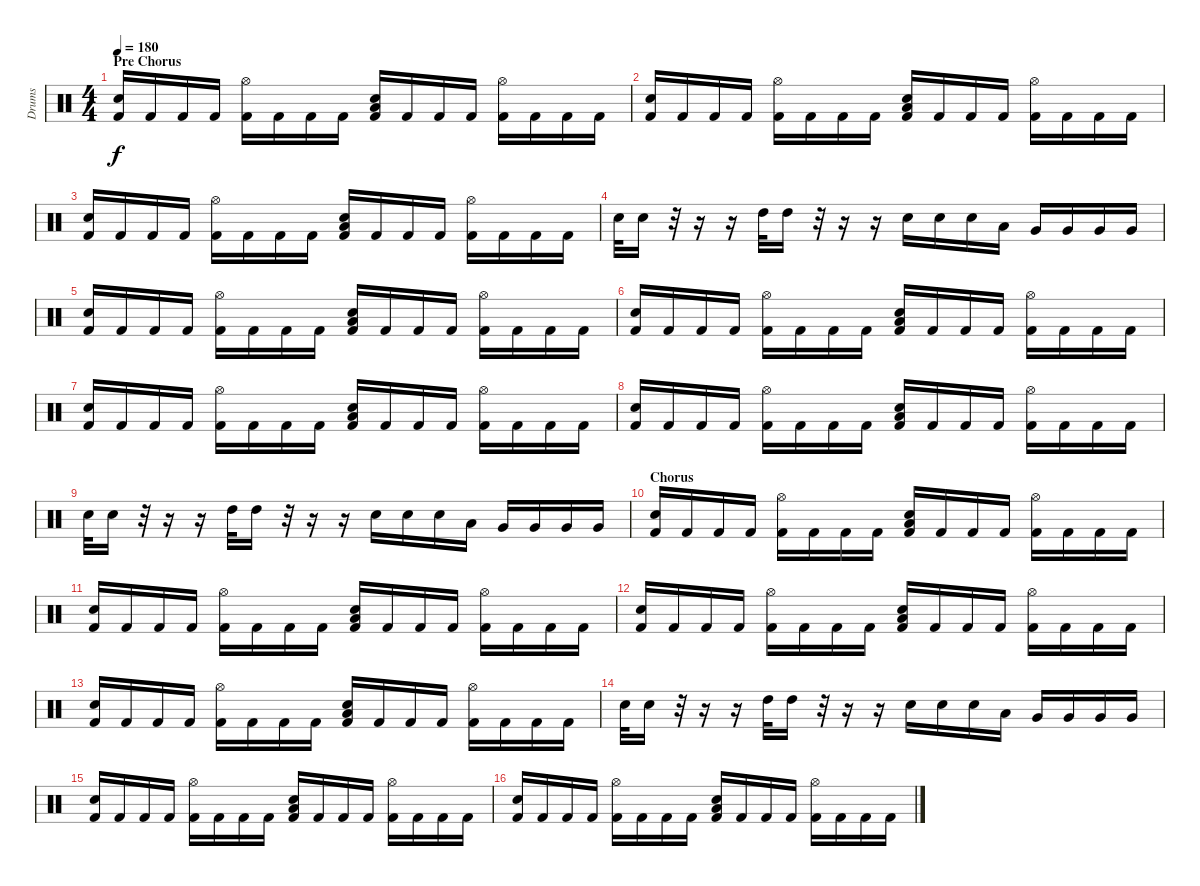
\track ("Drums" "Drums") {instrument percussion}
\staff {score}
\articulation defaults
\ts (4 4)
\section ("" "Pre Chorus")
\tempo 180
\clef neutral
\ks c
("Kick (hit) 2" "Electric Snare (hit)").16{dy f} "Kick (hit) 2".16 "Kick (hit) 2".16 "Kick (hit) 2".16 ("Kick (hit) 2" "Hi-Hat (open)").16 "Kick (hit) 2".16 "Kick (hit) 2".16 "Kick (hit) 2".16 ("Kick (hit) 2" "Low Tom (hit)" "Electric Snare (hit)").16 "Kick (hit) 2".16 "Kick (hit) 2".16 "Kick (hit) 2".16 ("Kick (hit) 2" "Hi-Hat (open)").16 "Kick (hit) 2".16 "Kick (hit) 2".16 "Kick (hit) 2".16 |
("Kick (hit) 2" "Electric Snare (hit)").16 "Kick (hit) 2".16 "Kick (hit) 2".16 "Kick (hit) 2".16 ("Kick (hit) 2" "Hi-Hat (open)").16 "Kick (hit) 2".16 "Kick (hit) 2".16 "Kick (hit) 2".16 ("Kick (hit) 2" "Low Tom (hit)" "Electric Snare (hit)").16 "Kick (hit) 2".16 "Kick (hit) 2".16 "Kick (hit) 2".16 ("Kick (hit) 2" "Hi-Hat (open)").16 "Kick (hit) 2".16 "Kick (hit) 2".16 "Kick (hit) 2".16 |
("Kick (hit) 2" "Electric Snare (hit)").16 "Kick (hit) 2".16 "Kick (hit) 2".16 "Kick (hit) 2".16 ("Kick (hit) 2" "Hi-Hat (open)").16 "Kick (hit) 2".16 "Kick (hit) 2".16 "Kick (hit) 2".16 ("Kick (hit) 2" "Low Tom (hit)" "Electric Snare (hit)").16 "Kick (hit) 2".16 "Kick (hit) 2".16 "Kick (hit) 2".16 ("Kick (hit) 2" "Hi-Hat (open)").16 "Kick (hit) 2".16 "Kick (hit) 2".16 "Kick (hit) 2".16 |
"Electric Snare (hit)".32 "Electric Snare (hit)".16 r.32 r.16 r.16 "High Tom (hit)".32 "High Tom (hit)".16 r.32 r.16 r.16 "Electric Snare (hit)".16 "Electric Snare (hit)".16 "Electric Snare (hit)".16 "Low Tom (hit)".16 "Very Low Tom (hit)".16 "Very Low Tom (hit)".16 "Very Low Tom (hit)".16 "Very Low Tom (hit)".16 |
("Kick (hit) 2" "Electric Snare (hit)").16 "Kick (hit) 2".16 "Kick (hit) 2".16 "Kick (hit) 2".16 ("Kick (hit) 2" "Hi-Hat (open)").16 "Kick (hit) 2".16 "Kick (hit) 2".16 "Kick (hit) 2".16 ("Kick (hit) 2" "Low Tom (hit)" "Electric Snare (hit)").16 "Kick (hit) 2".16 "Kick (hit) 2".16 "Kick (hit) 2".16 ("Kick (hit) 2" "Hi-Hat (open)").16 "Kick (hit) 2".16 "Kick (hit) 2".16 "Kick (hit) 2".16 |
("Kick (hit) 2" "Electric Snare (hit)").16 "Kick (hit) 2".16 "Kick (hit) 2".16 "Kick (hit) 2".16 ("Kick (hit) 2" "Hi-Hat (open)").16 "Kick (hit) 2".16 "Kick (hit) 2".16 "Kick (hit) 2".16 ("Kick (hit) 2" "Low Tom (hit)" "Electric Snare (hit)").16 "Kick (hit) 2".16 "Kick (hit) 2".16 "Kick (hit) 2".16 ("Kick (hit) 2" "Hi-Hat (open)").16 "Kick (hit) 2".16 "Kick (hit) 2".16 "Kick (hit) 2".16 |
("Kick (hit) 2" "Electric Snare (hit)").16 "Kick (hit) 2".16 "Kick (hit) 2".16 "Kick (hit) 2".16 ("Kick (hit) 2" "Hi-Hat (open)").16 "Kick (hit) 2".16 "Kick (hit) 2".16 "Kick (hit) 2".16 ("Kick (hit) 2" "Low Tom (hit)" "Electric Snare (hit)").16 "Kick (hit) 2".16 "Kick (hit) 2".16 "Kick (hit) 2".16 ("Kick (hit) 2" "Hi-Hat (open)").16 "Kick (hit) 2".16 "Kick (hit) 2".16 "Kick (hit) 2".16 |
("Kick (hit) 2" "Electric Snare (hit)").16 "Kick (hit) 2".16 "Kick (hit) 2".16 "Kick (hit) 2".16 ("Kick (hit) 2" "Hi-Hat (open)").16 "Kick (hit) 2".16 "Kick (hit) 2".16 "Kick (hit) 2".16 ("Kick (hit) 2" "Low Tom (hit)" "Electric Snare (hit)").16 "Kick (hit) 2".16 "Kick (hit) 2".16 "Kick (hit) 2".16 ("Kick (hit) 2" "Hi-Hat (open)").16 "Kick (hit) 2".16 "Kick (hit) 2".16 "Kick (hit) 2".16 |
"Electric Snare (hit)".32 "Electric Snare (hit)".16 r.32 r.16 r.16 "High Tom (hit)".32 "High Tom (hit)".16 r.32 r.16 r.16 "Electric Snare (hit)".16 "Electric Snare (hit)".16 "Electric Snare (hit)".16 "Low Tom (hit)".16 "Very Low Tom (hit)".16 "Very Low Tom (hit)".16 "Very Low Tom (hit)".16 "Very Low Tom (hit)".16 |
\section ("" "Chorus")
("Kick (hit) 2" "Electric Snare (hit)").16 "Kick (hit) 2".16 "Kick (hit) 2".16 "Kick (hit) 2".16 ("Kick (hit) 2" "Hi-Hat (open)").16 "Kick (hit) 2".16 "Kick (hit) 2".16 "Kick (hit) 2".16 ("Kick (hit) 2" "Low Tom (hit)" "Electric Snare (hit)").16 "Kick (hit) 2".16 "Kick (hit) 2".16 "Kick (hit) 2".16 ("Kick (hit) 2" "Hi-Hat (open)").16 "Kick (hit) 2".16 "Kick (hit) 2".16 "Kick (hit) 2".16 |
("Kick (hit) 2" "Electric Snare (hit)").16 "Kick (hit) 2".16 "Kick (hit) 2".16 "Kick (hit) 2".16 ("Kick (hit) 2" "Hi-Hat (open)").16 "Kick (hit) 2".16 "Kick (hit) 2".16 "Kick (hit) 2".16 ("Kick (hit) 2" "Low Tom (hit)" "Electric Snare (hit)").16 "Kick (hit) 2".16 "Kick (hit) 2".16 "Kick (hit) 2".16 ("Kick (hit) 2" "Hi-Hat (open)").16 "Kick (hit) 2".16 "Kick (hit) 2".16 "Kick (hit) 2".16 |
("Kick (hit) 2" "Electric Snare (hit)").16 "Kick (hit) 2".16 "Kick (hit) 2".16 "Kick (hit) 2".16 ("Kick (hit) 2" "Hi-Hat (open)").16 "Kick (hit) 2".16 "Kick (hit) 2".16 "Kick (hit) 2".16 ("Kick (hit) 2" "Low Tom (hit)" "Electric Snare (hit)").16 "Kick (hit) 2".16 "Kick (hit) 2".16 "Kick (hit) 2".16 ("Kick (hit) 2" "Hi-Hat (open)").16 "Kick (hit) 2".16 "Kick (hit) 2".16 "Kick (hit) 2".16 |
("Kick (hit) 2" "Electric Snare (hit)").16 "Kick (hit) 2".16 "Kick (hit) 2".16 "Kick (hit) 2".16 ("Kick (hit) 2" "Hi-Hat (open)").16 "Kick (hit) 2".16 "Kick (hit) 2".16 "Kick (hit) 2".16 ("Kick (hit) 2" "Low Tom (hit)" "Electric Snare (hit)").16 "Kick (hit) 2".16 "Kick (hit) 2".16 "Kick (hit) 2".16 ("Kick (hit) 2" "Hi-Hat (open)").16 "Kick (hit) 2".16 "Kick (hit) 2".16 "Kick (hit) 2".16 |
"Electric Snare (hit)".32 "Electric Snare (hit)".16 r.32 r.16 r.16 "High Tom (hit)".32 "High Tom (hit)".16 r.32 r.16 r.16 "Electric Snare (hit)".16 "Electric Snare (hit)".16 "Electric Snare (hit)".16 "Low Tom (hit)".16 "Very Low Tom (hit)".16 "Very Low Tom (hit)".16 "Very Low Tom (hit)".16 "Very Low Tom (hit)".16 |
("Kick (hit) 2" "Electric Snare (hit)").16 "Kick (hit) 2".16 "Kick (hit) 2".16 "Kick (hit) 2".16 ("Kick (hit) 2" "Hi-Hat (open)").16 "Kick (hit) 2".16 "Kick (hit) 2".16 "Kick (hit) 2".16 ("Kick (hit) 2" "Low Tom (hit)" "Electric Snare (hit)").16 "Kick (hit) 2".16 "Kick (hit) 2".16 "Kick (hit) 2".16 ("Kick (hit) 2" "Hi-Hat (open)").16 "Kick (hit) 2".16 "Kick (hit) 2".16 "Kick (hit) 2".16 |
("Kick (hit) 2" "Electric Snare (hit)").16 "Kick (hit) 2".16 "Kick (hit) 2".16 "Kick (hit) 2".16 ("Kick (hit) 2" "Hi-Hat (open)").16 "Kick (hit) 2".16 "Kick (hit) 2".16 "Kick (hit) 2".16 ("Kick (hit) 2" "Low Tom (hit)" "Electric Snare (hit)").16 "Kick (hit) 2".16 "Kick (hit) 2".16 "Kick (hit) 2".16 ("Kick (hit) 2" "Hi-Hat (open)").16 "Kick (hit) 2".16 "Kick (hit) 2".16 "Kick (hit) 2".16
